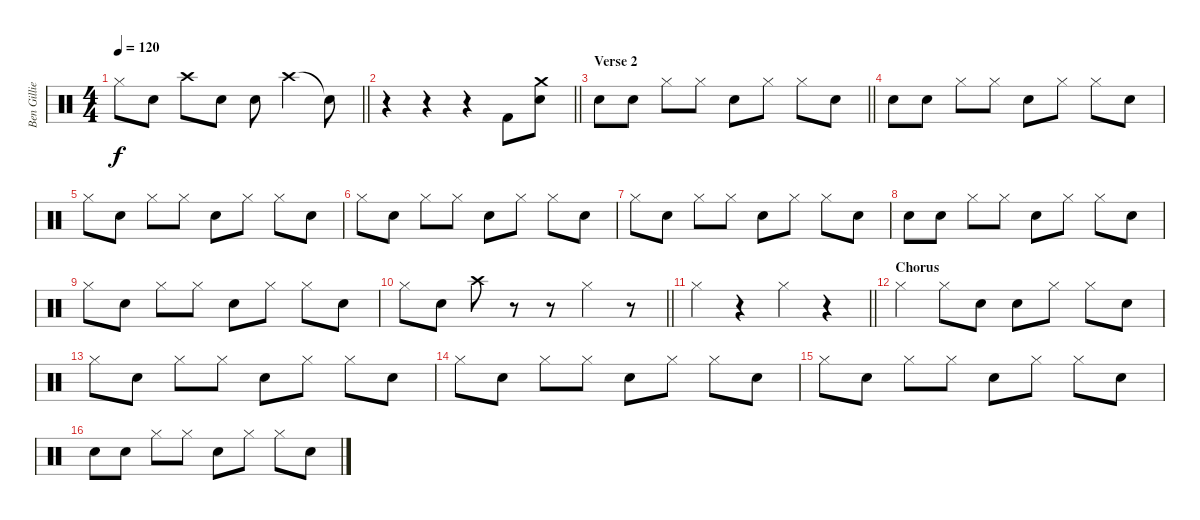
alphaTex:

\track ("Ben Gillies(drums)" "Ben Gillie") {instrument percussion}
\staff {score}
\articulation defaults
\ts (4 4)
\tempo 120
\clef neutral
\barLineRight lightlight
\ks c "Hi-Hat (closed)".8{dy f} "Electric Snare (hit)".8 "Crash high (hit)".8 "Electric Snare (hit)".8 "Electric Snare (hit)".8 "Crash high (hit)".4 "Snare (hit)"{t}.8
|
\barLineRight lightlight
r.4 r.4 r.4 "Kick (hit) 2".8 ("Crash medium (hit)" "Electric Snare (hit)").8 |
\section ("" "Verse 2")
\barLineRight lightlight "Electric Snare (hit)".8 "Electric Snare (hit)".8 "Hi-Hat (closed)".8 "Hi-Hat (closed)".8 "Electric Snare (hit)".8 "Hi-Hat (closed)".8 "Hi-Hat (closed)".8 "Electric Snare (hit)".8
|
"Electric Snare (hit)".8 "Electric Snare (hit)".8 "Hi-Hat (closed)".8 "Hi-Hat (closed)".8 "Electric Snare (hit)".8 "Hi-Hat (closed)".8 "Hi-Hat (closed)".8 "Electric Snare (hit)".8 |
"Hi-Hat (closed)".8 "Electric Snare (hit)".8 "Hi-Hat (closed)".8 "Hi-Hat (closed)".8 "Electric Snare (hit)".8 "Hi-Hat (closed)".8 "Hi-Hat (closed)".8 "Electric Snare (hit)".8 |
"Hi-Hat (closed)".8 "Electric Snare (hit)".8 "Hi-Hat (closed)".8 "Hi-Hat (closed)".8 "Electric Snare (hit)".8 "Hi-Hat (closed)".8 "Hi-Hat (closed)".8 "Electric Snare (hit)".8 |
"Hi-Hat (closed)".8 "Electric Snare (hit)".8 "Hi-Hat (closed)".8 "Hi-Hat (closed)".8 "Electric Snare (hit)".8 "Hi-Hat (closed)".8 "Hi-Hat (closed)".8 "Electric Snare (hit)".8 |
"Electric Snare (hit)".8 "Electric Snare (hit)".8 "Hi-Hat (closed)".8 "Hi-Hat (closed)".8 "Electric Snare (hit)".8 "Hi-Hat (closed)".8 "Hi-Hat (closed)".8 "Electric Snare (hit)".8 |
"Hi-Hat (closed)".8 "Electric Snare (hit)".8 "Hi-Hat (closed)".8 "Hi-Hat (closed)".8 "Electric Snare (hit)".8 "Hi-Hat (closed)".8 "Hi-Hat (closed)".8 "Electric Snare (hit)".8 |
\barLineRight lightlight "Hi-Hat (closed)".8 "Electric Snare (hit)".8 "Crash high (hit)".8
r.8 r.8 "Hi-Hat (closed)".4 r.8 |
\barLineRight lightlight "Hi-Hat (closed)".4
r.4 "Hi-Hat (closed)".4 r.4 |
\section ("" "Chorus")
"Hi-Hat (closed)".4 "Hi-Hat (closed)".8 "Electric Snare (hit)".8 "Electric Snare (hit)".8 "Hi-Hat (closed)".8 "Hi-Hat (closed)".8 "Electric Snare (hit)".8 |
"Hi-Hat (closed)".8 "Electric Snare (hit)".8 "Hi-Hat (closed)".8 "Hi-Hat (closed)".8 "Electric Snare (hit)".8 "Hi-Hat (closed)".8 "Hi-Hat (closed)".8 "Electric Snare (hit)".8 |
"Hi-Hat (closed)".8 "Electric Snare (hit)".8 "Hi-Hat (closed)".8 "Hi-Hat (closed)".8 "Electric Snare (hit)".8 "Hi-Hat (closed)".8 "Hi-Hat (closed)".8 "Electric Snare (hit)".8 |
"Hi-Hat (closed)".8 "Electric Snare (hit)".8 "Hi-Hat (closed)".8 "Hi-Hat (closed)".8 "Electric Snare (hit)".8 "Hi-Hat (closed)".8 "Hi-Hat (closed)".8 "Electric Snare (hit)".8 |
"Electric Snare (hit)".8 "Electric Snare (hit)".8 "Hi-Hat (closed)".8 "Hi-Hat (closed)".8 "Electric Snare (hit)".8 "Hi-Hat (closed)".8 "Hi-Hat (closed)".8 "Electric Snare (hit)".8
